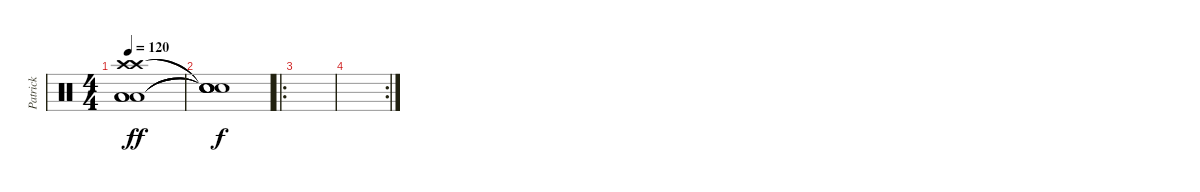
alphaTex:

\track ("Patrick" "Patrick") {instrument percussion}
\staff {score}
\articulation defaults
\ts (4 4)
\tempo 120
\clef neutral
\ks c
("Crash high (hit)" "Crash high (hit)" "Low Floor Tom (hit)" "Low Floor Tom (hit)" "Low Floor Tom (hit)").1{dy ff} |
("Snare (hit)"{t} "Snare (hit)"{t} "Snare (hit)"{t} "Snare (hit)"{t} "Snare (hit)"{t}).1{dy f} |
\ro
|
\rc 2
